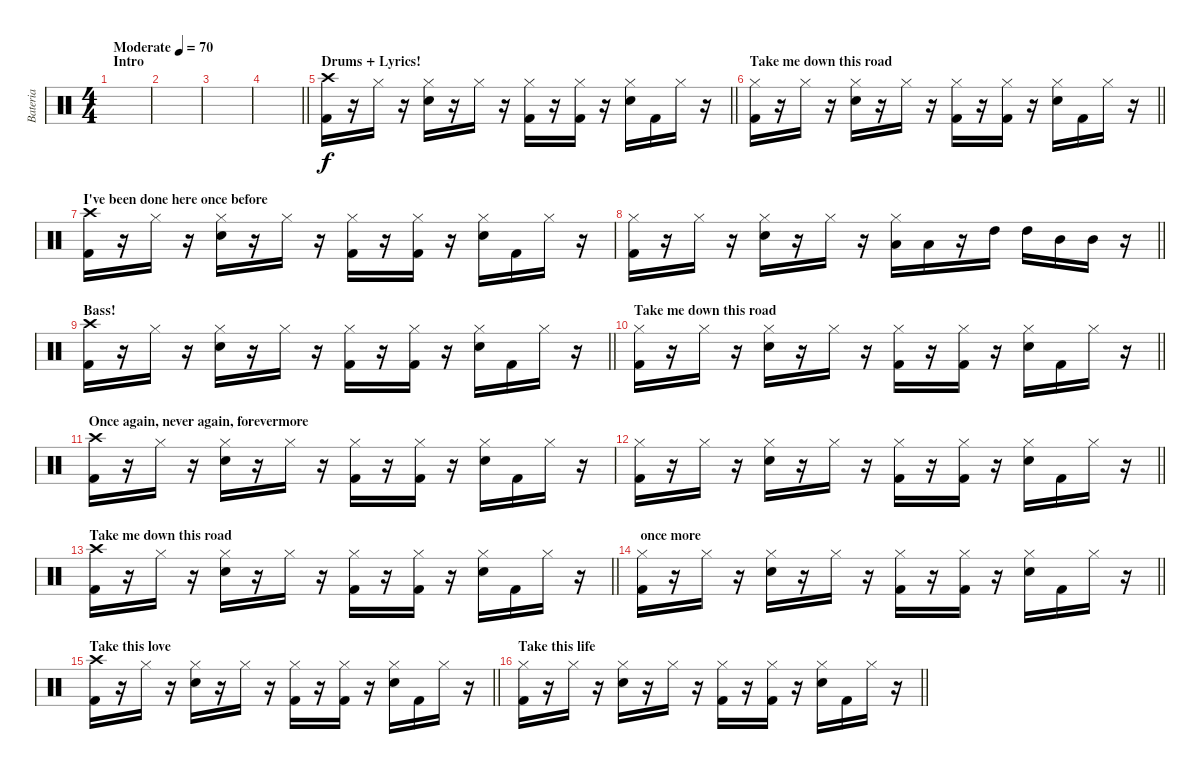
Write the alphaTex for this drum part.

\track ("Bateria" "Bateria") {instrument percussion}
\staff {score}
\articulation defaults
\ts (4 4)
\section ("" "Intro")
\tempo (70 "Moderate")
\clef neutral
\ks c
|
|
|
\barLineRight lightlight
|
\section ("" "Drums + Lyrics!")
\barLineRight lightlight
("Crash high (hit)" "Kick (hit) 2").16 r.16 "Hi-Hat (closed)".16 r.16 ("Hi-Hat (closed)" "Electric Snare (hit)").16 r.16 "Hi-Hat (closed)".16 r.16 ("Hi-Hat (closed)" "Kick (hit) 2").16 r.16 ("Hi-Hat (closed)" "Kick (hit) 2").16 r.16 ("Hi-Hat (closed)" "Electric Snare (hit)").16 "Kick (hit) 2".16 "Hi-Hat (closed)".16 r.16 |
\section ("" "Take me down this road")
\barLineRight lightlight
("Hi-Hat (closed)" "Kick (hit) 2").16 r.16 "Hi-Hat (closed)".16 r.16 ("Hi-Hat (closed)" "Electric Snare (hit)").16 r.16 "Hi-Hat (closed)".16 r.16 ("Hi-Hat (closed)" "Kick (hit) 2").16 r.16 ("Hi-Hat (closed)" "Kick (hit) 2").16 r.16 ("Hi-Hat (closed)" "Electric Snare (hit)").16 "Kick (hit) 2".16 "Hi-Hat (closed)".16 r.16 |
\section ("" "I've been done here once before")
("Crash high (hit)" "Kick (hit) 2").16 r.16 "Hi-Hat (closed)".16 r.16 ("Hi-Hat (closed)" "Electric Snare (hit)").16 r.16 "Hi-Hat (closed)".16 r.16 ("Hi-Hat (closed)" "Kick (hit) 2").16 r.16 ("Hi-Hat (closed)" "Kick (hit) 2").16 r.16 ("Hi-Hat (closed)" "Electric Snare (hit)").16 "Kick (hit) 2".16 "Hi-Hat (closed)".16 r.16 |
\barLineRight lightlight
("Hi-Hat (closed)" "Kick (hit) 2").16 r.16 "Hi-Hat (closed)".16 r.16 ("Hi-Hat (closed)" "Electric Snare (hit)").16 r.16 "Hi-Hat (closed)".16 r.16 ("Hi-Hat (closed)" "Low Tom (hit)").16 "Low Tom (hit)".16 r.16 "High Tom (hit)".16 "High Tom (hit)".16 "Mid Tom (hit)".16 "Mid Tom (hit)".16 r.16 |
\section ("" "Bass!")
\barLineRight lightlight
("Crash high (hit)" "Kick (hit) 2").16 r.16 "Hi-Hat (closed)".16 r.16 ("Hi-Hat (closed)" "Electric Snare (hit)").16 r.16 "Hi-Hat (closed)".16 r.16 ("Hi-Hat (closed)" "Kick (hit) 2").16 r.16 ("Hi-Hat (closed)" "Kick (hit) 2").16 r.16 ("Hi-Hat (closed)" "Electric Snare (hit)").16 "Kick (hit) 2".16 "Hi-Hat (closed)".16 r.16 |
\section ("" "Take me down this road")
\barLineRight lightlight
("Hi-Hat (closed)" "Kick (hit) 2").16 r.16 "Hi-Hat (closed)".16 r.16 ("Hi-Hat (closed)" "Electric Snare (hit)").16 r.16 "Hi-Hat (closed)".16 r.16 ("Hi-Hat (closed)" "Kick (hit) 2").16 r.16 ("Hi-Hat (closed)" "Kick (hit) 2").16 r.16 ("Hi-Hat (closed)" "Electric Snare (hit)").16 "Kick (hit) 2".16 "Hi-Hat (closed)".16 r.16 |
\section ("" "Once again, never again, forevermore")
("Crash high (hit)" "Kick (hit) 2").16 r.16 "Hi-Hat (closed)".16 r.16 ("Hi-Hat (closed)" "Electric Snare (hit)").16 r.16 "Hi-Hat (closed)".16 r.16 ("Hi-Hat (closed)" "Kick (hit) 2").16 r.16 ("Hi-Hat (closed)" "Kick (hit) 2").16 r.16 ("Hi-Hat (closed)" "Electric Snare (hit)").16 "Kick (hit) 2".16 "Hi-Hat (closed)".16 r.16 |
\barLineRight lightlight
("Hi-Hat (closed)" "Kick (hit) 2").16 r.16 "Hi-Hat (closed)".16 r.16 ("Hi-Hat (closed)" "Electric Snare (hit)").16 r.16 "Hi-Hat (closed)".16 r.16 ("Hi-Hat (closed)" "Kick (hit) 2").16 r.16 ("Hi-Hat (closed)" "Kick (hit) 2").16 r.16 ("Hi-Hat (closed)" "Electric Snare (hit)").16 "Kick (hit) 2".16 "Hi-Hat (closed)".16 r.16 |
\section ("" "Take me down this road ")
\barLineRight lightlight
("Crash high (hit)" "Kick (hit) 2").16 r.16 "Hi-Hat (closed)".16 r.16 ("Hi-Hat (closed)" "Electric Snare (hit)").16 r.16 "Hi-Hat (closed)".16 r.16 ("Hi-Hat (closed)" "Kick (hit) 2").16 r.16 ("Hi-Hat (closed)" "Kick (hit) 2").16 r.16 ("Hi-Hat (closed)" "Electric Snare (hit)").16 "Kick (hit) 2".16 "Hi-Hat (closed)".16 r.16 |
\section ("" " once more")
\barLineRight lightlight
("Hi-Hat (closed)" "Kick (hit) 2").16 r.16 "Hi-Hat (closed)".16 r.16 ("Hi-Hat (closed)" "Electric Snare (hit)").16 r.16 "Hi-Hat (closed)".16 r.16 ("Hi-Hat (closed)" "Kick (hit) 2").16 r.16 ("Hi-Hat (closed)" "Kick (hit) 2").16 r.16 ("Hi-Hat (closed)" "Electric Snare (hit)").16 "Kick (hit) 2".16 "Hi-Hat (closed)".16 r.16 |
\section ("" "Take this love")
\barLineRight lightlight
("Crash high (hit)" "Kick (hit) 2").16 r.16 "Hi-Hat (closed)".16 r.16 ("Hi-Hat (closed)" "Electric Snare (hit)").16 r.16 "Hi-Hat (closed)".16 r.16 ("Hi-Hat (closed)" "Kick (hit) 2").16 r.16 ("Hi-Hat (closed)" "Kick (hit) 2").16 r.16 ("Hi-Hat (closed)" "Electric Snare (hit)").16 "Kick (hit) 2".16 "Hi-Hat (closed)".16 r.16 |
\section ("" "Take this life")
\barLineRight lightlight
("Hi-Hat (closed)" "Kick (hit) 2").16 r.16 "Hi-Hat (closed)".16 r.16 ("Hi-Hat (closed)" "Electric Snare (hit)").16 r.16 "Hi-Hat (closed)".16 r.16 ("Hi-Hat (closed)" "Kick (hit) 2").16 r.16 ("Hi-Hat (closed)" "Kick (hit) 2").16 r.16 ("Hi-Hat (closed)" "Electric Snare (hit)").16 "Kick (hit) 2".16 "Hi-Hat (closed)".16 r.16
